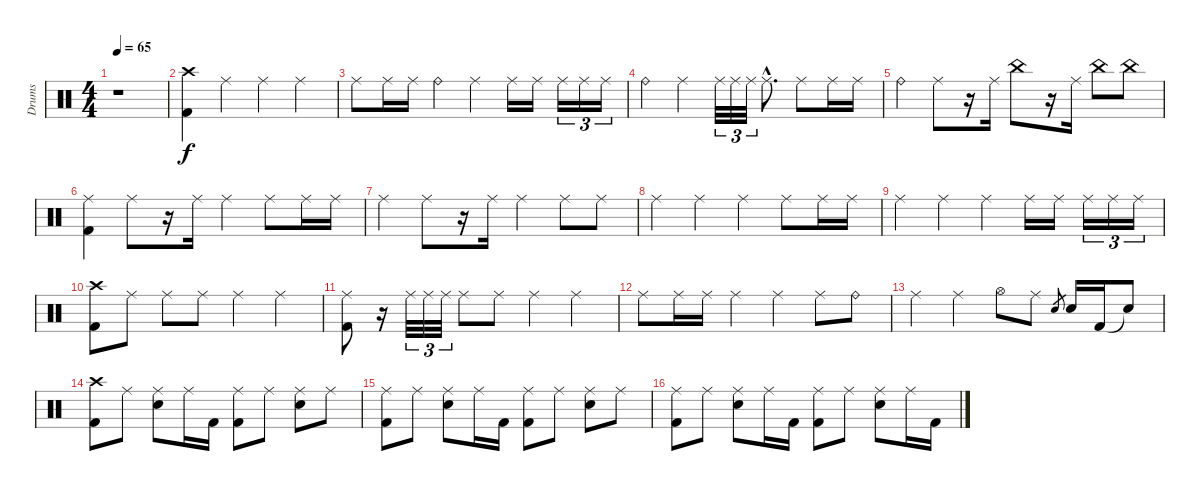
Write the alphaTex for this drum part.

\track ("Drums" "Drums") {instrument percussion}
\staff {score}
\articulation defaults
\ts (4 4)
\tempo 65
\clef neutral
\ks c
r.1{dy f} |
("Crash high (hit)" "Kick (hit) 2").4 "Ride (middle)".4 "Ride (middle)".4 "Ride (middle)".4 |
"Ride (middle)".8 "Ride (middle)".16 "Ride (middle)".16 "Ride (bell)".4 "Ride (middle)".4 "Ride (middle)".16 "Ride (middle)".16 "Ride (middle)".16{tu (3 2)} "Ride (middle)".16{tu (3 2)} "Ride (middle)".16{tu (3 2)} |
"Ride (bell)".4 "Ride (middle)".4 "Ride (middle)".32{tu (3 2)} "Ride (middle)".32{tu (3 2)} "Ride (middle)".32{tu (3 2)} "Ride (middle)"{hac}.8{d} "Ride (middle)".8 "Ride (middle)".16 "Ride (middle)".16 |
"Ride (bell)".4 "Ride (middle)".8 r.16 "Ride (middle)".16 "China (hit)".8 r.16 "Ride (middle)".16 "China (hit)".8 "China (hit)".8 |
("Ride (middle)" "Kick (hit) 2").4 "Ride (middle)".8 r.16 "Ride (middle)".16 "Ride (middle)".4 "Ride (middle)".8 "Ride (middle)".16 "Ride (middle)".16 |
"Ride (middle)".4 "Ride (middle)".8 r.16 "Ride (middle)".16 "Ride (middle)".4 "Ride (middle)".8 "Ride (middle)".8 |
"Ride (middle)".4 "Ride (middle)".4 "Ride (middle)".4 "Ride (middle)".8 "Ride (middle)".16 "Ride (middle)".16 |
"Ride (middle)".4 "Ride (middle)".4 "Ride (middle)".4 "Ride (middle)".16 "Ride (middle)".16 "Ride (middle)".16{tu (3 2)} "Ride (middle)".16{tu (3 2)} "Ride (middle)".16{tu (3 2)} |
("Crash high (hit)" "Kick (hit) 2").8 "Ride (middle)".8 "Ride (middle)".8 "Ride (middle)".8 "Ride (middle)".4 "Ride (middle)".4 |
("Ride (middle)" "Kick (hit) 2").8 r.16 "Ride (middle)".32{tu (3 2)} "Ride (middle)".32{tu (3 2)} "Ride (middle)".32{tu (3 2)} "Ride (middle)".8 "Ride (middle)".8 "Ride (middle)".4 "Ride (middle)".4 |
"Ride (middle)".8 "Ride (middle)".16 "Ride (middle)".16 "Ride (middle)".4 "Ride (middle)".4 "Ride (middle)".8 "Ride (bell)".8 |
"Ride (middle)".4 "Ride (middle)".4 "Hi-Hat (open)".8 "Ride (middle)".8 "Electric Snare (hit)".8{gr} "Electric Snare (hit)".16 "Kick (hit) 2".16 "Snare (hit)"{t}.8 |
("Crash high (hit)" "Kick (hit) 2").8 "Ride (middle)".8 ("Ride (middle)" "Electric Snare (hit)").8 "Ride (middle)".16 "Kick (hit) 2".16 ("Ride (middle)" "Kick (hit) 2").8 "Ride (middle)".8 ("Ride (middle)" "Electric Snare (hit)").8 "Ride (middle)".8 |
("Ride (middle)" "Kick (hit) 2").8 "Ride (middle)".8 ("Ride (middle)" "Electric Snare (hit)").8 "Ride (middle)".16 "Kick (hit) 2".16 ("Ride (middle)" "Kick (hit) 2").8 "Ride (middle)".8 ("Ride (middle)" "Electric Snare (hit)").8 "Ride (middle)".8 |
("Ride (middle)" "Kick (hit) 2").8 "Ride (middle)".8 ("Ride (middle)" "Electric Snare (hit)").8 "Ride (middle)".16 "Kick (hit) 2".16 ("Ride (middle)" "Kick (hit) 2").8 "Ride (middle)".8 ("Ride (middle)" "Electric Snare (hit)").8 "Ride (middle)".16 "Kick (hit) 2".16
